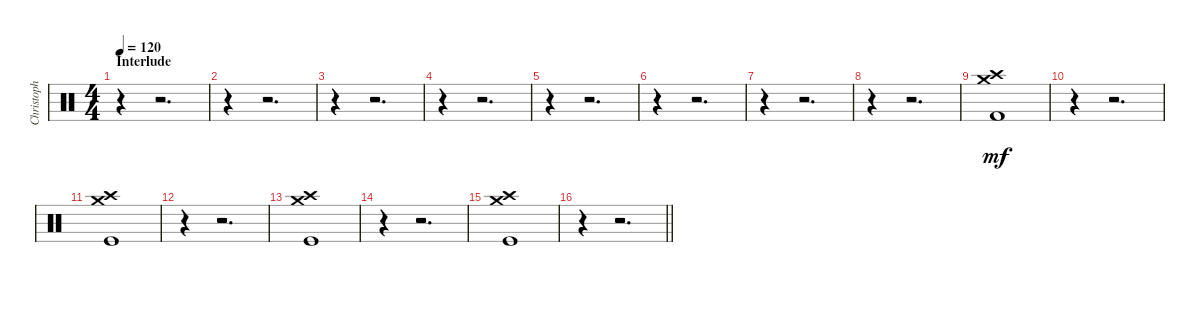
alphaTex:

\track ("Christoph Schneider" "Christoph ") {instrument percussion}
\staff {score}
\articulation defaults
\ts (4 4)
\section ("" "Interlude")
\tempo 120
\clef neutral
\ks c
r.4{dy mf} r.2{d} |
r.4 r.2{d} |
r.4 r.2{d} |
r.4 r.2{d} |
r.4 r.2{d} |
r.4 r.2{d} |
r.4 r.2{d} |
r.4 r.2{d} |
("Kick (hit) 2" "Crash high (hit)" "Crash medium (hit)").1 |
r.4 r.2{d} |
("Kick (hit)" "Crash high (hit)" "Crash medium (hit)").1 |
r.4 r.2{d} |
("Kick (hit)" "Crash high (hit)" "Crash medium (hit)").1 |
r.4 r.2{d} |
("Kick (hit)" "Crash high (hit)" "Crash medium (hit)").1 |
\barLineRight lightlight
r.4 r.2{d}
